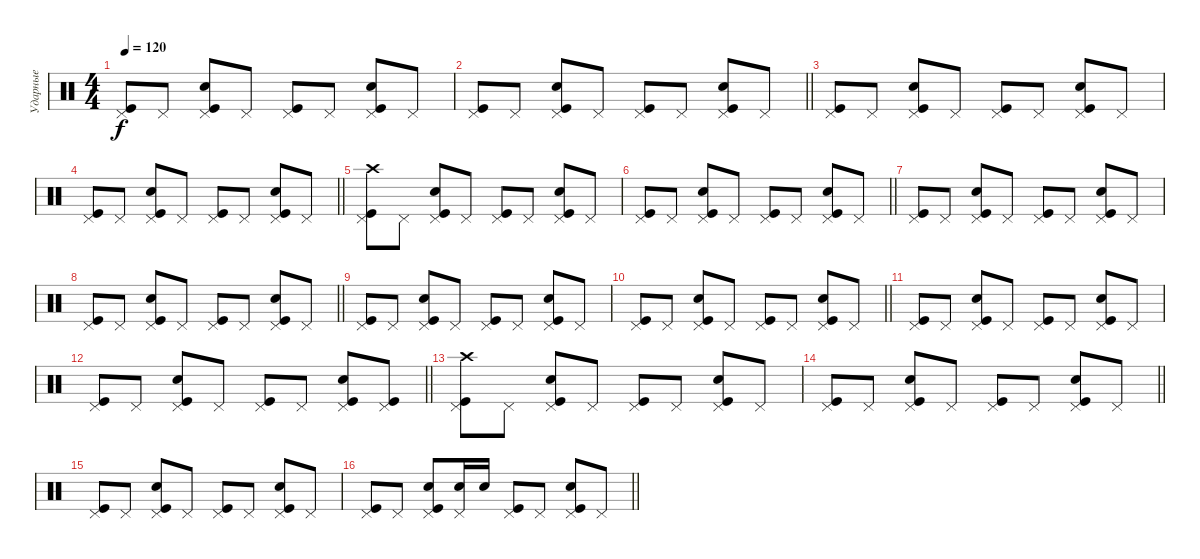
\track ("Ударные" "Ударные") {instrument percussion}
\staff {score}
\articulation defaults
\ts (4 4)
\tempo 120
\clef neutral
\ks c
("Pedal Hi-Hat (hit)" "Kick (hit)").8{dy f} "Pedal Hi-Hat (hit)".8 ("Pedal Hi-Hat (hit)" "Kick (hit)" "Snare (hit) 2").8 "Pedal Hi-Hat (hit)".8 ("Pedal Hi-Hat (hit)" "Kick (hit)").8 "Pedal Hi-Hat (hit)".8 ("Pedal Hi-Hat (hit)" "Kick (hit)" "Snare (hit) 2").8 "Pedal Hi-Hat (hit)".8 |
\barLineRight lightlight
("Pedal Hi-Hat (hit)" "Kick (hit)").8 "Pedal Hi-Hat (hit)".8 ("Pedal Hi-Hat (hit)" "Kick (hit)" "Snare (hit) 2").8 "Pedal Hi-Hat (hit)".8 ("Pedal Hi-Hat (hit)" "Kick (hit)").8 "Pedal Hi-Hat (hit)".8 ("Pedal Hi-Hat (hit)" "Kick (hit)" "Snare (hit) 2").8 "Pedal Hi-Hat (hit)".8 |
("Pedal Hi-Hat (hit)" "Kick (hit)").8 "Pedal Hi-Hat (hit)".8 ("Pedal Hi-Hat (hit)" "Kick (hit)" "Snare (hit) 2").8 "Pedal Hi-Hat (hit)".8 ("Pedal Hi-Hat (hit)" "Kick (hit)").8 "Pedal Hi-Hat (hit)".8 ("Pedal Hi-Hat (hit)" "Kick (hit)" "Snare (hit) 2").8 "Pedal Hi-Hat (hit)".8 |
\barLineRight lightlight
("Pedal Hi-Hat (hit)" "Kick (hit)").8 "Pedal Hi-Hat (hit)".8 ("Pedal Hi-Hat (hit)" "Kick (hit)" "Snare (hit) 2").8 "Pedal Hi-Hat (hit)".8 ("Pedal Hi-Hat (hit)" "Kick (hit)").8 "Pedal Hi-Hat (hit)".8 ("Pedal Hi-Hat (hit)" "Kick (hit)" "Snare (hit) 2").8 "Pedal Hi-Hat (hit)".8 |
("Pedal Hi-Hat (hit)" "Kick (hit)" "Crash high (hit)").8 "Pedal Hi-Hat (hit)".8 ("Pedal Hi-Hat (hit)" "Kick (hit)" "Snare (hit) 2").8 "Pedal Hi-Hat (hit)".8 ("Pedal Hi-Hat (hit)" "Kick (hit)").8 "Pedal Hi-Hat (hit)".8 ("Pedal Hi-Hat (hit)" "Kick (hit)" "Snare (hit) 2").8 "Pedal Hi-Hat (hit)".8 |
\barLineRight lightlight
("Pedal Hi-Hat (hit)" "Kick (hit)").8 "Pedal Hi-Hat (hit)".8 ("Pedal Hi-Hat (hit)" "Kick (hit)" "Snare (hit) 2").8 "Pedal Hi-Hat (hit)".8 ("Pedal Hi-Hat (hit)" "Kick (hit)").8 "Pedal Hi-Hat (hit)".8 ("Pedal Hi-Hat (hit)" "Kick (hit)" "Snare (hit) 2").8 "Pedal Hi-Hat (hit)".8 |
("Pedal Hi-Hat (hit)" "Kick (hit)").8 "Pedal Hi-Hat (hit)".8 ("Pedal Hi-Hat (hit)" "Kick (hit)" "Snare (hit) 2").8 "Pedal Hi-Hat (hit)".8 ("Pedal Hi-Hat (hit)" "Kick (hit)").8 "Pedal Hi-Hat (hit)".8 ("Pedal Hi-Hat (hit)" "Kick (hit)" "Snare (hit) 2").8 "Pedal Hi-Hat (hit)".8 |
\barLineRight lightlight
("Pedal Hi-Hat (hit)" "Kick (hit)").8 "Pedal Hi-Hat (hit)".8 ("Pedal Hi-Hat (hit)" "Kick (hit)" "Snare (hit) 2").8 "Pedal Hi-Hat (hit)".8 ("Pedal Hi-Hat (hit)" "Kick (hit)").8 "Pedal Hi-Hat (hit)".8 ("Pedal Hi-Hat (hit)" "Kick (hit)" "Snare (hit) 2").8 "Pedal Hi-Hat (hit)".8 |
("Pedal Hi-Hat (hit)" "Kick (hit)").8 "Pedal Hi-Hat (hit)".8 ("Pedal Hi-Hat (hit)" "Kick (hit)" "Snare (hit) 2").8 "Pedal Hi-Hat (hit)".8 ("Pedal Hi-Hat (hit)" "Kick (hit)").8 "Pedal Hi-Hat (hit)".8 ("Pedal Hi-Hat (hit)" "Kick (hit)" "Snare (hit) 2").8 "Pedal Hi-Hat (hit)".8 |
\barLineRight lightlight
("Pedal Hi-Hat (hit)" "Kick (hit)").8 "Pedal Hi-Hat (hit)".8 ("Pedal Hi-Hat (hit)" "Kick (hit)" "Snare (hit) 2").8 "Pedal Hi-Hat (hit)".8 ("Pedal Hi-Hat (hit)" "Kick (hit)").8 "Pedal Hi-Hat (hit)".8 ("Pedal Hi-Hat (hit)" "Kick (hit)" "Snare (hit) 2").8 "Pedal Hi-Hat (hit)".8 |
("Pedal Hi-Hat (hit)" "Kick (hit)").8 "Pedal Hi-Hat (hit)".8 ("Pedal Hi-Hat (hit)" "Kick (hit)" "Snare (hit) 2").8 "Pedal Hi-Hat (hit)".8 ("Pedal Hi-Hat (hit)" "Kick (hit)").8 "Pedal Hi-Hat (hit)".8 ("Pedal Hi-Hat (hit)" "Kick (hit)" "Snare (hit) 2").8 "Pedal Hi-Hat (hit)".8 |
\barLineRight lightlight
("Pedal Hi-Hat (hit)" "Kick (hit)").8 "Pedal Hi-Hat (hit)".8 ("Pedal Hi-Hat (hit)" "Kick (hit)" "Snare (hit) 2").8 "Pedal Hi-Hat (hit)".8 ("Pedal Hi-Hat (hit)" "Kick (hit)").8 "Pedal Hi-Hat (hit)".8 ("Pedal Hi-Hat (hit)" "Kick (hit)" "Snare (hit) 2").8 ("Pedal Hi-Hat (hit)" "Kick (hit)").8 |
("Pedal Hi-Hat (hit)" "Kick (hit)" "Crash high (hit)").8 "Pedal Hi-Hat (hit)".8 ("Pedal Hi-Hat (hit)" "Kick (hit)" "Snare (hit) 2").8 "Pedal Hi-Hat (hit)".8 ("Pedal Hi-Hat (hit)" "Kick (hit)").8 "Pedal Hi-Hat (hit)".8 ("Pedal Hi-Hat (hit)" "Kick (hit)" "Snare (hit) 2").8 "Pedal Hi-Hat (hit)".8 |
\barLineRight lightlight
("Pedal Hi-Hat (hit)" "Kick (hit)").8 "Pedal Hi-Hat (hit)".8 ("Pedal Hi-Hat (hit)" "Kick (hit)" "Snare (hit) 2").8 "Pedal Hi-Hat (hit)".8 ("Pedal Hi-Hat (hit)" "Kick (hit)").8 "Pedal Hi-Hat (hit)".8 ("Pedal Hi-Hat (hit)" "Kick (hit)" "Snare (hit) 2").8 "Pedal Hi-Hat (hit)".8 |
("Pedal Hi-Hat (hit)" "Kick (hit)").8 "Pedal Hi-Hat (hit)".8 ("Pedal Hi-Hat (hit)" "Kick (hit)" "Snare (hit) 2").8 "Pedal Hi-Hat (hit)".8 ("Pedal Hi-Hat (hit)" "Kick (hit)").8 "Pedal Hi-Hat (hit)".8 ("Pedal Hi-Hat (hit)" "Kick (hit)" "Snare (hit) 2").8 "Pedal Hi-Hat (hit)".8 |
\barLineRight lightlight
("Pedal Hi-Hat (hit)" "Kick (hit)").8 "Pedal Hi-Hat (hit)".8 ("Pedal Hi-Hat (hit)" "Kick (hit)" "Snare (hit) 2").8 ("Pedal Hi-Hat (hit)" "Snare (hit) 2").16 "Snare (hit) 2".16 ("Pedal Hi-Hat (hit)" "Kick (hit)").8 "Pedal Hi-Hat (hit)".8 ("Pedal Hi-Hat (hit)" "Kick (hit)" "Snare (hit) 2").8 "Pedal Hi-Hat (hit)".8
